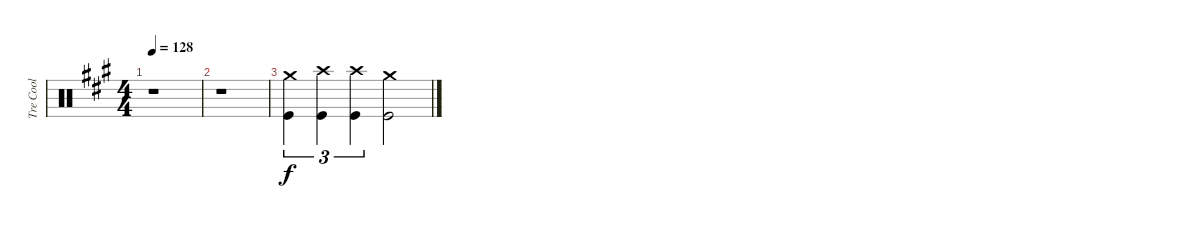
\track ("Tre Cool" "Tre Cool") {instrument percussion}
\staff {score}
\articulation defaults
\ts (4 4)
\tempo 128
\clef neutral
\ks a
r.1{dy f} |
r.1 |
("Crash medium (hit)" "Kick (hit)").4{tu (3 2)} ("Crash high (hit)" "Kick (hit)").4{tu (3 2)} ("Crash high (hit)" "Kick (hit)").4{tu (3 2)} ("Crash medium (hit)" "Kick (hit)").2
